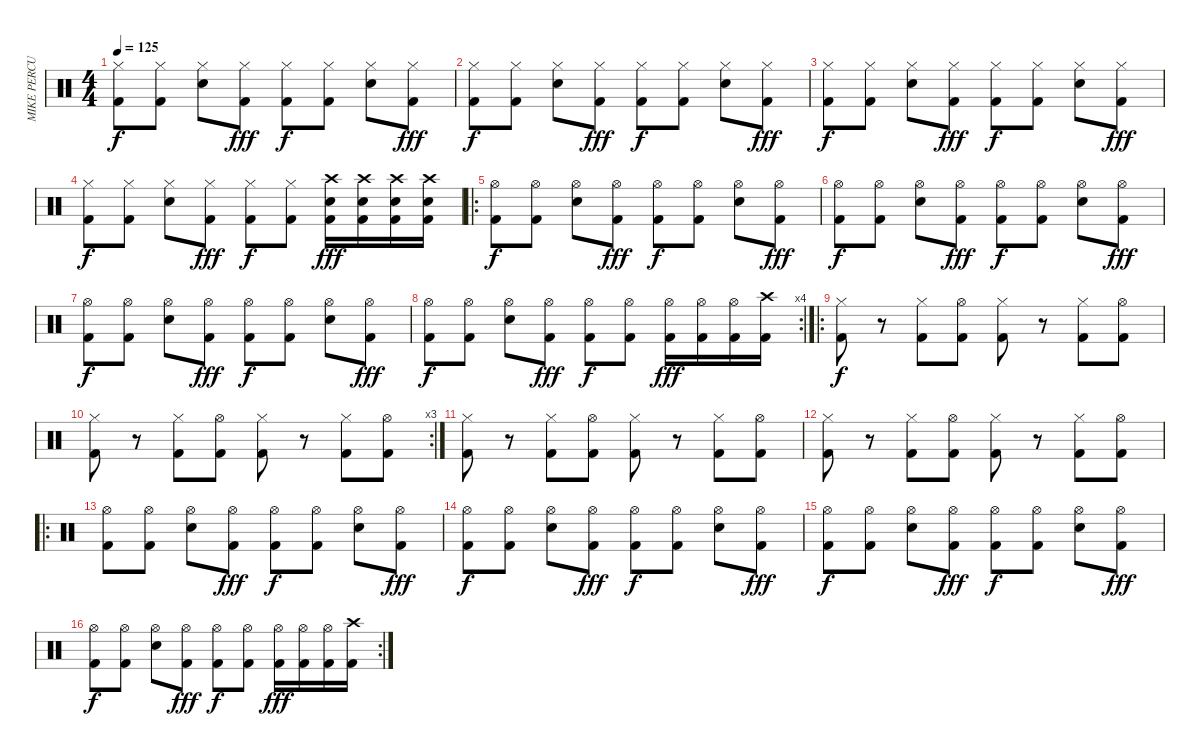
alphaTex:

\track ("MIKE PERCUSSIONS" "MIKE PERCU") {instrument percussion}
\staff {score}
\articulation defaults
\ts (4 4)
\tempo 125
\clef neutral
\ks c
("Hi-Hat (closed)" "Kick (hit) 2").8{dy f} ("Hi-Hat (closed)" "Kick (hit) 2").8 ("Hi-Hat (closed)" "Electric Snare (hit)").8 ("Hi-Hat (closed)" "Kick (hit) 2").8{dy fff} ("Hi-Hat (closed)" "Kick (hit) 2").8{dy f} ("Hi-Hat (closed)" "Kick (hit) 2").8 ("Hi-Hat (closed)" "Electric Snare (hit)").8 ("Hi-Hat (closed)" "Kick (hit) 2").8{dy fff} |
("Hi-Hat (closed)" "Kick (hit) 2").8{dy f} ("Hi-Hat (closed)" "Kick (hit) 2").8 ("Hi-Hat (closed)" "Electric Snare (hit)").8 ("Hi-Hat (closed)" "Kick (hit) 2").8{dy fff} ("Hi-Hat (closed)" "Kick (hit) 2").8{dy f} ("Hi-Hat (closed)" "Kick (hit) 2").8 ("Hi-Hat (closed)" "Electric Snare (hit)").8 ("Hi-Hat (closed)" "Kick (hit) 2").8{dy fff} |
("Hi-Hat (closed)" "Kick (hit) 2").8{dy f} ("Hi-Hat (closed)" "Kick (hit) 2").8 ("Hi-Hat (closed)" "Electric Snare (hit)").8 ("Hi-Hat (closed)" "Kick (hit) 2").8{dy fff} ("Hi-Hat (closed)" "Kick (hit) 2").8{dy f} ("Hi-Hat (closed)" "Kick (hit) 2").8 ("Hi-Hat (closed)" "Electric Snare (hit)").8 ("Hi-Hat (closed)" "Kick (hit) 2").8{dy fff} |
("Hi-Hat (closed)" "Kick (hit) 2").8{dy f} ("Hi-Hat (closed)" "Kick (hit) 2").8 ("Hi-Hat (closed)" "Electric Snare (hit)").8 ("Hi-Hat (closed)" "Kick (hit) 2").8{dy fff} ("Hi-Hat (closed)" "Kick (hit) 2").8{dy f} ("Hi-Hat (closed)" "Kick (hit) 2").8 ("Electric Snare (hit)" "Crash high (hit)" "Kick (hit) 2").16{dy fff} ("Electric Snare (hit)" "Crash high (hit)" "Kick (hit) 2").16 ("Electric Snare (hit)" "Crash high (hit)" "Kick (hit) 2").16 ("Electric Snare (hit)" "Crash high (hit)" "Kick (hit) 2").16 |
\ro
("Hi-Hat (open)" "Kick (hit) 2").8{dy f} ("Hi-Hat (open)" "Kick (hit) 2").8 ("Hi-Hat (open)" "Electric Snare (hit)").8 ("Hi-Hat (open)" "Kick (hit) 2").8{dy fff} ("Hi-Hat (open)" "Kick (hit) 2").8{dy f} ("Hi-Hat (open)" "Kick (hit) 2").8 ("Hi-Hat (open)" "Electric Snare (hit)").8 ("Hi-Hat (open)" "Kick (hit) 2").8{dy fff} |
("Hi-Hat (open)" "Kick (hit) 2").8{dy f} ("Hi-Hat (open)" "Kick (hit) 2").8 ("Hi-Hat (open)" "Electric Snare (hit)").8 ("Hi-Hat (open)" "Kick (hit) 2").8{dy fff} ("Hi-Hat (open)" "Kick (hit) 2").8{dy f} ("Hi-Hat (open)" "Kick (hit) 2").8 ("Hi-Hat (open)" "Electric Snare (hit)").8 ("Hi-Hat (open)" "Kick (hit) 2").8{dy fff} |
("Hi-Hat (open)" "Kick (hit) 2").8{dy f} ("Hi-Hat (open)" "Kick (hit) 2").8 ("Hi-Hat (open)" "Electric Snare (hit)").8 ("Hi-Hat (open)" "Kick (hit) 2").8{dy fff} ("Hi-Hat (open)" "Kick (hit) 2").8{dy f} ("Hi-Hat (open)" "Kick (hit) 2").8 ("Hi-Hat (open)" "Electric Snare (hit)").8 ("Hi-Hat (open)" "Kick (hit) 2").8{dy fff} |
\rc 4
("Hi-Hat (open)" "Kick (hit) 2").8{dy f} ("Hi-Hat (open)" "Kick (hit) 2").8 ("Hi-Hat (open)" "Electric Snare (hit)").8 ("Hi-Hat (open)" "Kick (hit) 2").8{dy fff} ("Hi-Hat (open)" "Kick (hit) 2").8{dy f} ("Hi-Hat (open)" "Kick (hit) 2").8 ("Hi-Hat (open)" "Kick (hit) 2").16{dy fff} ("Hi-Hat (open)" "Kick (hit) 2").16 ("Hi-Hat (open)" "Kick (hit) 2").16 ("Crash high (hit)" "Kick (hit) 2").16 |
\ro
("Kick (hit) 2" "Hi-Hat (closed)").8{dy f} r.8 ("Kick (hit) 2" "Hi-Hat (closed)").8 ("Kick (hit) 2" "Hi-Hat (open)").8 ("Kick (hit) 2" "Hi-Hat (closed)").8 r.8 ("Kick (hit) 2" "Hi-Hat (closed)").8 ("Kick (hit) 2" "Hi-Hat (open)").8 |
\rc 3
("Kick (hit) 2" "Hi-Hat (closed)").8 r.8 ("Kick (hit) 2" "Hi-Hat (closed)").8 ("Kick (hit) 2" "Hi-Hat (open)").8 ("Kick (hit) 2" "Hi-Hat (closed)").8 r.8 ("Kick (hit) 2" "Hi-Hat (closed)").8 ("Kick (hit) 2" "Hi-Hat (open)").8 |
("Kick (hit) 2" "Hi-Hat (closed)").8 r.8 ("Kick (hit) 2" "Hi-Hat (closed)").8 ("Kick (hit) 2" "Hi-Hat (open)").8 ("Kick (hit) 2" "Hi-Hat (closed)").8 r.8 ("Kick (hit) 2" "Hi-Hat (closed)").8 ("Kick (hit) 2" "Hi-Hat (open)").8 |
("Kick (hit) 2" "Hi-Hat (closed)").8 r.8 ("Kick (hit) 2" "Hi-Hat (closed)").8 ("Kick (hit) 2" "Hi-Hat (open)").8 ("Kick (hit) 2" "Hi-Hat (closed)").8 r.8 ("Kick (hit) 2" "Hi-Hat (closed)").8 ("Kick (hit) 2" "Hi-Hat (open)").8 |
\ro
("Hi-Hat (open)" "Kick (hit) 2").8 ("Hi-Hat (open)" "Kick (hit) 2").8 ("Hi-Hat (open)" "Electric Snare (hit)").8 ("Hi-Hat (open)" "Kick (hit) 2").8{dy fff} ("Hi-Hat (open)" "Kick (hit) 2").8{dy f} ("Hi-Hat (open)" "Kick (hit) 2").8 ("Hi-Hat (open)" "Electric Snare (hit)").8 ("Hi-Hat (open)" "Kick (hit) 2").8{dy fff} |
("Hi-Hat (open)" "Kick (hit) 2").8{dy f} ("Hi-Hat (open)" "Kick (hit) 2").8 ("Hi-Hat (open)" "Electric Snare (hit)").8 ("Hi-Hat (open)" "Kick (hit) 2").8{dy fff} ("Hi-Hat (open)" "Kick (hit) 2").8{dy f} ("Hi-Hat (open)" "Kick (hit) 2").8 ("Hi-Hat (open)" "Electric Snare (hit)").8 ("Hi-Hat (open)" "Kick (hit) 2").8{dy fff} |
("Hi-Hat (open)" "Kick (hit) 2").8{dy f} ("Hi-Hat (open)" "Kick (hit) 2").8 ("Hi-Hat (open)" "Electric Snare (hit)").8 ("Hi-Hat (open)" "Kick (hit) 2").8{dy fff} ("Hi-Hat (open)" "Kick (hit) 2").8{dy f} ("Hi-Hat (open)" "Kick (hit) 2").8 ("Hi-Hat (open)" "Electric Snare (hit)").8 ("Hi-Hat (open)" "Kick (hit) 2").8{dy fff} |
\rc 2
("Hi-Hat (open)" "Kick (hit) 2").8{dy f} ("Hi-Hat (open)" "Kick (hit) 2").8 ("Hi-Hat (open)" "Electric Snare (hit)").8 ("Hi-Hat (open)" "Kick (hit) 2").8{dy fff} ("Hi-Hat (open)" "Kick (hit) 2").8{dy f} ("Hi-Hat (open)" "Kick (hit) 2").8 ("Hi-Hat (open)" "Kick (hit) 2").16{dy fff} ("Hi-Hat (open)" "Kick (hit) 2").16 ("Hi-Hat (open)" "Kick (hit) 2").16 ("Crash high (hit)" "Kick (hit) 2").16
